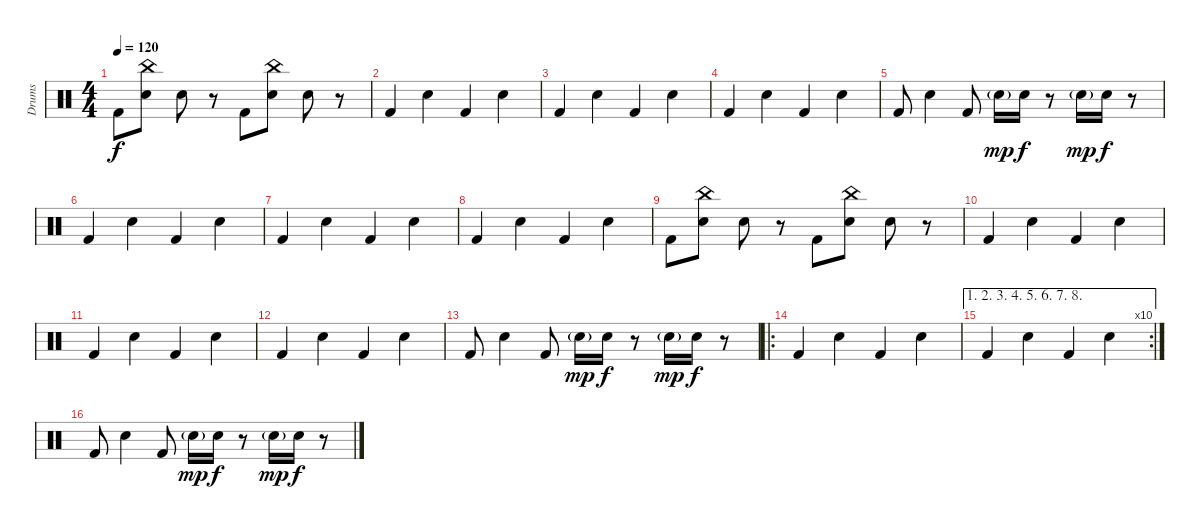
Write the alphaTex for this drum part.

\track ("Drums" "Drums") {instrument percussion}
\staff {score}
\articulation defaults
\ts (4 4)
\tempo 120
\clef neutral
\ks c "Kick (hit) 2".8{dy f}
("China (hit)" "Snare (hit) 2").8 "Snare (hit) 2".8 r.8 "Kick (hit) 2".8 ("China (hit)" "Snare (hit) 2").8 "Snare (hit) 2".8 r.8 |
"Kick (hit) 2".4 "Snare (hit) 2".4 "Kick (hit) 2".4 "Snare (hit) 2".4 |
"Kick (hit) 2".4 "Snare (hit) 2".4 "Kick (hit) 2".4 "Snare (hit) 2".4 |
"Kick (hit) 2".4 "Snare (hit) 2".4 "Kick (hit) 2".4 "Snare (hit) 2".4 |
"Kick (hit) 2".8 "Snare (hit) 2".4 "Kick (hit) 2".8 "Snare (hit) 2"{g}.16{dy mp} "Snare (hit) 2".16{dy f} r.8 "Snare (hit) 2"{g}.16{dy mp} "Snare (hit) 2".16{dy f} r.8 |
"Kick (hit) 2".4 "Snare (hit) 2".4 "Kick (hit) 2".4 "Snare (hit) 2".4 |
"Kick (hit) 2".4 "Snare (hit) 2".4 "Kick (hit) 2".4 "Snare (hit) 2".4 |
"Kick (hit) 2".4 "Snare (hit) 2".4 "Kick (hit) 2".4 "Snare (hit) 2".4 |
"Kick (hit) 2".8 ("China (hit)" "Snare (hit) 2").8 "Snare (hit) 2".8 r.8 "Kick (hit) 2".8 ("China (hit)" "Snare (hit) 2").8 "Snare (hit) 2".8 r.8 |
"Kick (hit) 2".4 "Snare (hit) 2".4 "Kick (hit) 2".4 "Snare (hit) 2".4 |
"Kick (hit) 2".4 "Snare (hit) 2".4 "Kick (hit) 2".4 "Snare (hit) 2".4 |
"Kick (hit) 2".4 "Snare (hit) 2".4 "Kick (hit) 2".4 "Snare (hit) 2".4 |
"Kick (hit) 2".8 "Snare (hit) 2".4 "Kick (hit) 2".8 "Snare (hit) 2"{g}.16{dy mp} "Snare (hit) 2".16{dy f} r.8 "Snare (hit) 2"{g}.16{dy mp} "Snare (hit) 2".16{dy f} r.8 |
\ro "Kick (hit) 2".4 "Snare (hit) 2".4 "Kick (hit) 2".4 "Snare (hit) 2".4
|
\ae (1 2 3 4 5 6 7 8)
\rc 10 "Kick (hit) 2".4 "Snare (hit) 2".4 "Kick (hit) 2".4 "Snare (hit) 2".4
|
"Kick (hit) 2".8 "Snare (hit) 2".4 "Kick (hit) 2".8 "Snare (hit) 2"{g}.16{dy mp} "Snare (hit) 2".16{dy f} r.8 "Snare (hit) 2"{g}.16{dy mp} "Snare (hit) 2".16{dy f} r.8
